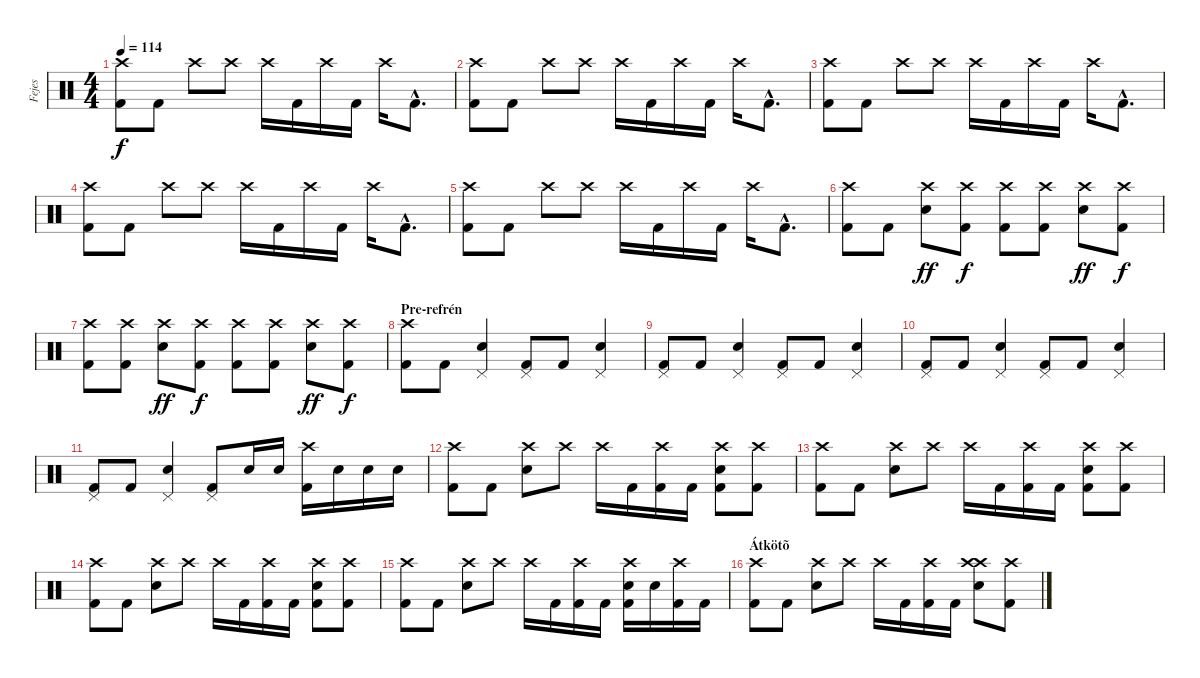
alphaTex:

\track ("Fejes" "Fejes") {instrument percussion}
\staff {score}
\articulation defaults
\ts (4 4)
\tempo 114
\clef neutral
\ks c
("Crash high (hit)" "Kick (hit) 2").8{dy f} "Kick (hit) 2".8 "Crash high (hit)".8 "Crash high (hit)".8 "Crash high (hit)".16 "Kick (hit) 2".16 "Crash high (hit)".16 "Kick (hit) 2".16 "Crash high (hit)".16 "Kick (hit) 2"{hac}.8{d} |
("Crash high (hit)" "Kick (hit) 2").8 "Kick (hit) 2".8 "Crash high (hit)".8 "Crash high (hit)".8 "Crash high (hit)".16 "Kick (hit) 2".16 "Crash high (hit)".16 "Kick (hit) 2".16 "Crash high (hit)".16 "Kick (hit) 2"{hac}.8{d} |
("Crash high (hit)" "Kick (hit) 2").8 "Kick (hit) 2".8 "Crash high (hit)".8 "Crash high (hit)".8 "Crash high (hit)".16 "Kick (hit) 2".16 "Crash high (hit)".16 "Kick (hit) 2".16 "Crash high (hit)".16 "Kick (hit) 2"{hac}.8{d} |
("Crash high (hit)" "Kick (hit) 2").8 "Kick (hit) 2".8 "Crash high (hit)".8 "Crash high (hit)".8 "Crash high (hit)".16 "Kick (hit) 2".16 "Crash high (hit)".16 "Kick (hit) 2".16 "Crash high (hit)".16 "Kick (hit) 2"{hac}.8{d} |
("Crash high (hit)" "Kick (hit) 2").8 "Kick (hit) 2".8 "Crash high (hit)".8 "Crash high (hit)".8 "Crash high (hit)".16 "Kick (hit) 2".16 "Crash high (hit)".16 "Kick (hit) 2".16 "Crash high (hit)".16 "Kick (hit) 2"{hac}.8{d} |
("Crash high (hit)" "Kick (hit) 2").8 "Kick (hit) 2".8 ("Crash high (hit)" "Electric Snare (hit)").8{dy ff} ("Crash high (hit)" "Kick (hit) 2").8{dy f} ("Crash high (hit)" "Kick (hit) 2").8 ("Crash high (hit)" "Kick (hit) 2").8 ("Crash high (hit)" "Electric Snare (hit)").8{dy ff} ("Crash high (hit)" "Kick (hit) 2").8{dy f} |
("Crash high (hit)" "Kick (hit) 2").8 ("Crash high (hit)" "Kick (hit) 2").8 ("Crash high (hit)" "Electric Snare (hit)").8{dy ff} ("Crash high (hit)" "Kick (hit) 2").8{dy f} ("Crash high (hit)" "Kick (hit) 2").8 ("Crash high (hit)" "Kick (hit) 2").8 ("Crash high (hit)" "Electric Snare (hit)").8{dy ff} ("Crash high (hit)" "Kick (hit) 2").8{dy f} |
\section ("" "Pre-refrén")
("Crash high (hit)" "Kick (hit) 2").8 "Kick (hit) 2".8 ("Pedal Hi-Hat (hit)" "Electric Snare (hit)").4 ("Pedal Hi-Hat (hit)" "Kick (hit) 2").8 "Kick (hit) 2".8 ("Pedal Hi-Hat (hit)" "Electric Snare (hit)").4 |
("Pedal Hi-Hat (hit)" "Kick (hit) 2").8 "Kick (hit) 2".8 ("Pedal Hi-Hat (hit)" "Electric Snare (hit)").4 ("Pedal Hi-Hat (hit)" "Kick (hit) 2").8 "Kick (hit) 2".8 ("Pedal Hi-Hat (hit)" "Electric Snare (hit)").4 |
("Pedal Hi-Hat (hit)" "Kick (hit) 2").8 "Kick (hit) 2".8 ("Pedal Hi-Hat (hit)" "Electric Snare (hit)").4 ("Pedal Hi-Hat (hit)" "Kick (hit) 2").8 "Kick (hit) 2".8 ("Pedal Hi-Hat (hit)" "Electric Snare (hit)").4 |
("Pedal Hi-Hat (hit)" "Kick (hit) 2").8 "Kick (hit) 2".8 ("Pedal Hi-Hat (hit)" "Electric Snare (hit)").4 ("Pedal Hi-Hat (hit)" "Kick (hit) 2").8 "Electric Snare (hit)".16 "Electric Snare (hit)".16 ("Crash high (hit)" "Kick (hit) 2").16 "Electric Snare (hit)".16 "Electric Snare (hit)".16 "Electric Snare (hit)".16 |
("Crash high (hit)" "Kick (hit) 2").8 "Kick (hit) 2".8 ("Crash high (hit)" "Electric Snare (hit)").8 "Crash high (hit)".8 "Crash high (hit)".16 "Kick (hit) 2".16 ("Crash high (hit)" "Kick (hit) 2").16 "Kick (hit) 2".16 ("Crash high (hit)" "Electric Snare (hit)" "Kick (hit) 2").8 ("Crash high (hit)" "Kick (hit) 2").8 |
("Crash high (hit)" "Kick (hit) 2").8 "Kick (hit) 2".8 ("Crash high (hit)" "Electric Snare (hit)").8 "Crash high (hit)".8 "Crash high (hit)".16 "Kick (hit) 2".16 ("Crash high (hit)" "Kick (hit) 2").16 "Kick (hit) 2".16 ("Crash high (hit)" "Electric Snare (hit)" "Kick (hit) 2").8 ("Crash high (hit)" "Kick (hit) 2").8 |
("Crash high (hit)" "Kick (hit) 2").8 "Kick (hit) 2".8 ("Crash high (hit)" "Electric Snare (hit)").8 "Crash high (hit)".8 "Crash high (hit)".16 "Kick (hit) 2".16 ("Crash high (hit)" "Kick (hit) 2").16 "Kick (hit) 2".16 ("Crash high (hit)" "Electric Snare (hit)" "Kick (hit) 2").8 ("Crash high (hit)" "Kick (hit) 2").8 |
("Crash high (hit)" "Kick (hit) 2").8 "Kick (hit) 2".8 ("Crash high (hit)" "Electric Snare (hit)").8 "Crash high (hit)".8 "Crash high (hit)".16 "Kick (hit) 2".16 ("Crash high (hit)" "Kick (hit) 2").16 "Kick (hit) 2".16 ("Crash high (hit)" "Electric Snare (hit)" "Kick (hit) 2").16 "Electric Snare (hit)".16 ("Crash high (hit)" "Kick (hit) 2").16 "Kick (hit) 2".16 |
\section ("" "Átkötõ")
("Crash high (hit)" "Kick (hit) 2").8 "Kick (hit) 2".8 ("Crash high (hit)" "Electric Snare (hit)").8 "Crash high (hit)".8 "Crash high (hit)".16 "Kick (hit) 2".16 ("Crash high (hit)" "Kick (hit) 2").16 "Kick (hit) 2".16 ("Crash high (hit)" "Electric Snare (hit)" "Crash high (hit)").8 ("Crash high (hit)" "Kick (hit) 2").8
